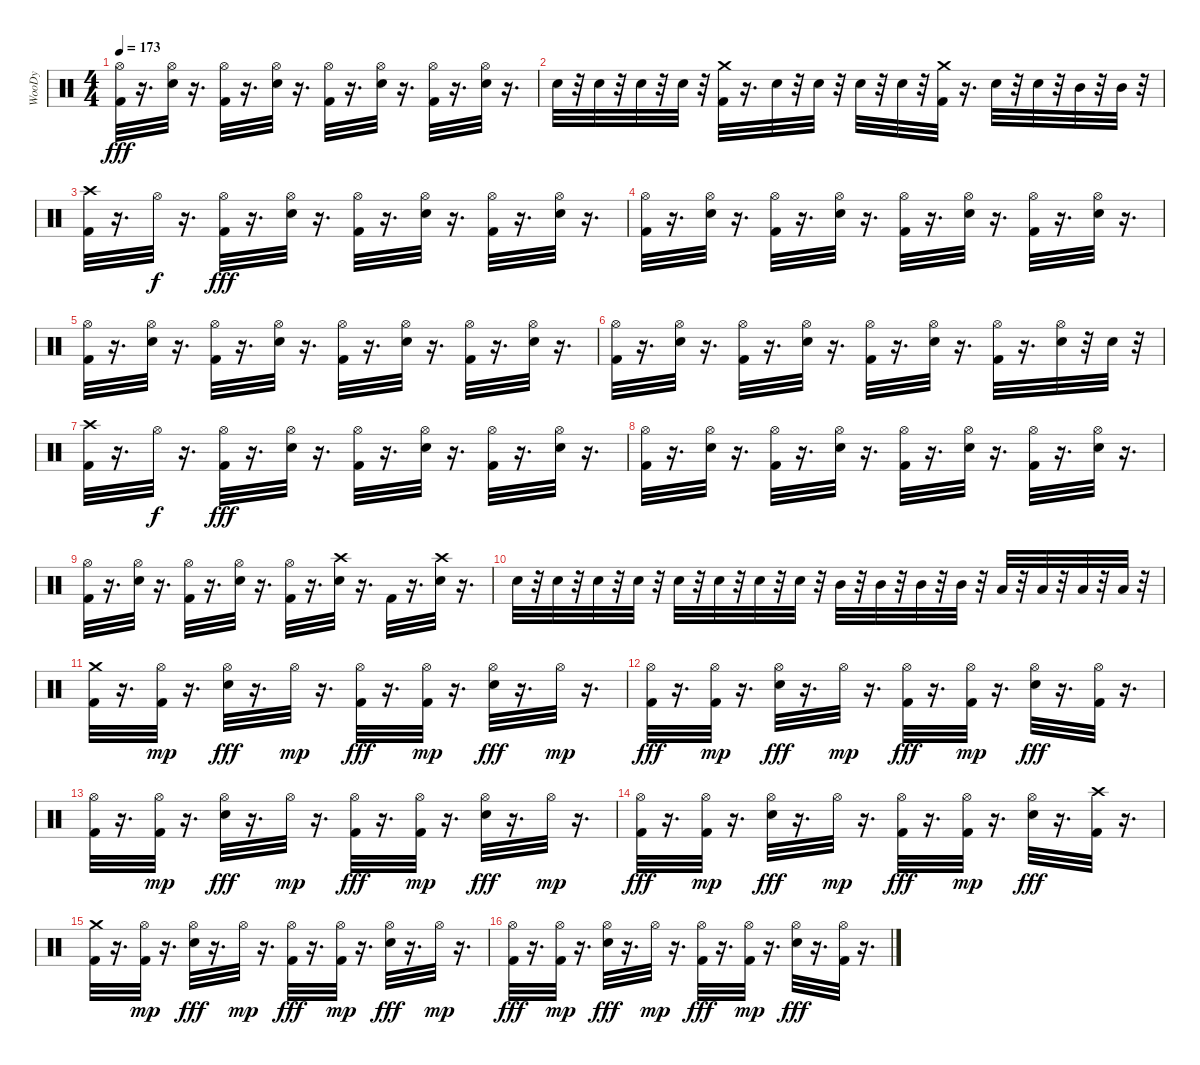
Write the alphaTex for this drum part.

\track ("WooDy" "WooDy") {instrument percussion}
\staff {score}
\articulation defaults
\ts (4 4)
\tempo 173
\clef neutral
\ks c
("Kick (hit) 2" "Hi-Hat (open)").32{dy fff} r.16{d} ("Electric Snare (hit)" "Hi-Hat (open)").32 r.16{d} ("Kick (hit) 2" "Hi-Hat (open)").32 r.16{d} ("Electric Snare (hit)" "Hi-Hat (open)").32 r.16{d} ("Kick (hit) 2" "Hi-Hat (open)").32 r.16{d} ("Electric Snare (hit)" "Hi-Hat (open)").32 r.16{d} ("Kick (hit) 2" "Hi-Hat (open)").32 r.16{d} ("Electric Snare (hit)" "Hi-Hat (open)").32 r.16{d} |
"Electric Snare (hit)".32 r.32 "Electric Snare (hit)".32 r.32 "Electric Snare (hit)".32 r.32 "Electric Snare (hit)".32 r.32 ("Kick (hit) 2" "Crash medium (hit)").32 r.16{d} "Electric Snare (hit)".32 r.32 "Electric Snare (hit)".32 r.32 "Electric Snare (hit)".32 r.32 "Electric Snare (hit)".32 r.32 ("Kick (hit) 2" "Crash medium (hit)").32 r.16{d} "Electric Snare (hit)".32 r.32 "Electric Snare (hit)".32 r.32 "Mid Tom (hit)".32 r.32 "Mid Tom (hit)".32 r.32 |
("Kick (hit) 2" "Crash high (hit)").32 r.16{d} "Hi-Hat (open)".32{dy f} r.16{d} ("Kick (hit) 2" "Hi-Hat (open)").32{dy fff} r.16{d} ("Electric Snare (hit)" "Hi-Hat (open)").32 r.16{d} ("Kick (hit) 2" "Hi-Hat (open)").32 r.16{d} ("Electric Snare (hit)" "Hi-Hat (open)").32 r.16{d} ("Kick (hit) 2" "Hi-Hat (open)").32 r.16{d} ("Electric Snare (hit)" "Hi-Hat (open)").32 r.16{d} |
("Kick (hit) 2" "Hi-Hat (open)").32 r.16{d} ("Electric Snare (hit)" "Hi-Hat (open)").32 r.16{d} ("Kick (hit) 2" "Hi-Hat (open)").32 r.16{d} ("Electric Snare (hit)" "Hi-Hat (open)").32 r.16{d} ("Kick (hit) 2" "Hi-Hat (open)").32 r.16{d} ("Electric Snare (hit)" "Hi-Hat (open)").32 r.16{d} ("Kick (hit) 2" "Hi-Hat (open)").32 r.16{d} ("Electric Snare (hit)" "Hi-Hat (open)").32 r.16{d} |
("Kick (hit) 2" "Hi-Hat (open)").32 r.16{d} ("Electric Snare (hit)" "Hi-Hat (open)").32 r.16{d} ("Kick (hit) 2" "Hi-Hat (open)").32 r.16{d} ("Electric Snare (hit)" "Hi-Hat (open)").32 r.16{d} ("Kick (hit) 2" "Hi-Hat (open)").32 r.16{d} ("Electric Snare (hit)" "Hi-Hat (open)").32 r.16{d} ("Kick (hit) 2" "Hi-Hat (open)").32 r.16{d} ("Electric Snare (hit)" "Hi-Hat (open)").32 r.16{d} |
("Kick (hit) 2" "Hi-Hat (open)").32 r.16{d} ("Electric Snare (hit)" "Hi-Hat (open)").32 r.16{d} ("Kick (hit) 2" "Hi-Hat (open)").32 r.16{d} ("Electric Snare (hit)" "Hi-Hat (open)").32 r.16{d} ("Kick (hit) 2" "Hi-Hat (open)").32 r.16{d} ("Electric Snare (hit)" "Hi-Hat (open)").32 r.16{d} ("Kick (hit) 2" "Hi-Hat (open)").32 r.16{d} ("Electric Snare (hit)" "Hi-Hat (open)").32 r.32 "Electric Snare (hit)".32 r.32 |
("Kick (hit) 2" "Crash high (hit)").32 r.16{d} "Hi-Hat (open)".32{dy f} r.16{d} ("Kick (hit) 2" "Hi-Hat (open)").32{dy fff} r.16{d} ("Electric Snare (hit)" "Hi-Hat (open)").32 r.16{d} ("Kick (hit) 2" "Hi-Hat (open)").32 r.16{d} ("Electric Snare (hit)" "Hi-Hat (open)").32 r.16{d} ("Kick (hit) 2" "Hi-Hat (open)").32 r.16{d} ("Electric Snare (hit)" "Hi-Hat (open)").32 r.16{d} |
("Kick (hit) 2" "Hi-Hat (open)").32 r.16{d} ("Electric Snare (hit)" "Hi-Hat (open)").32 r.16{d} ("Kick (hit) 2" "Hi-Hat (open)").32 r.16{d} ("Electric Snare (hit)" "Hi-Hat (open)").32 r.16{d} ("Kick (hit) 2" "Hi-Hat (open)").32 r.16{d} ("Electric Snare (hit)" "Hi-Hat (open)").32 r.16{d} ("Kick (hit) 2" "Hi-Hat (open)").32 r.16{d} ("Electric Snare (hit)" "Hi-Hat (open)").32 r.16{d} |
("Kick (hit) 2" "Hi-Hat (open)").32 r.16{d} ("Electric Snare (hit)" "Hi-Hat (open)").32 r.16{d} ("Kick (hit) 2" "Hi-Hat (open)").32 r.16{d} ("Electric Snare (hit)" "Hi-Hat (open)").32 r.16{d} ("Kick (hit) 2" "Hi-Hat (open)").32 r.16{d} ("Electric Snare (hit)" "Crash high (hit)").32 r.16{d} "Kick (hit) 2".32 r.16{d} ("Electric Snare (hit)" "Crash high (hit)").32 r.16{d} |
"Electric Snare (hit)".32 r.32 "Electric Snare (hit)".32 r.32 "Electric Snare (hit)".32 r.32 "Electric Snare (hit)".32 r.32 "Electric Snare (hit)".32 r.32 "Electric Snare (hit)".32 r.32 "Electric Snare (hit)".32 r.32 "Electric Snare (hit)".32 r.32 "Mid Tom (hit)".32 r.32 "Mid Tom (hit)".32 r.32 "Mid Tom (hit)".32 r.32 "Mid Tom (hit)".32 r.32 "Low Tom (hit)".32 r.32 "Low Tom (hit)".32 r.32 "Low Tom (hit)".32 r.32 "Low Tom (hit)".32 r.32 |
("Kick (hit) 2" "Crash medium (hit)").32 r.16{d} ("Kick (hit) 2" "Hi-Hat (open)").32{dy mp} r.16{d} ("Electric Snare (hit)" "Hi-Hat (open)").32{dy fff} r.16{d} "Hi-Hat (open)".32{dy mp} r.16{d} ("Kick (hit) 2" "Hi-Hat (open)").32{dy fff} r.16{d} ("Kick (hit) 2" "Hi-Hat (open)").32{dy mp} r.16{d} ("Electric Snare (hit)" "Hi-Hat (open)").32{dy fff} r.16{d} "Hi-Hat (open)".32{dy mp} r.16{d} |
("Kick (hit) 2" "Hi-Hat (open)").32{dy fff} r.16{d} ("Kick (hit) 2" "Hi-Hat (open)").32{dy mp} r.16{d} ("Electric Snare (hit)" "Hi-Hat (open)").32{dy fff} r.16{d} "Hi-Hat (open)".32{dy mp} r.16{d} ("Kick (hit) 2" "Hi-Hat (open)").32{dy fff} r.16{d} ("Kick (hit) 2" "Hi-Hat (open)").32{dy mp} r.16{d} ("Electric Snare (hit)" "Hi-Hat (open)").32{dy fff} r.16{d} ("Kick (hit) 2" "Hi-Hat (open)").32 r.16{d} |
("Kick (hit) 2" "Hi-Hat (open)").32 r.16{d} ("Kick (hit) 2" "Hi-Hat (open)").32{dy mp} r.16{d} ("Electric Snare (hit)" "Hi-Hat (open)").32{dy fff} r.16{d} "Hi-Hat (open)".32{dy mp} r.16{d} ("Kick (hit) 2" "Hi-Hat (open)").32{dy fff} r.16{d} ("Kick (hit) 2" "Hi-Hat (open)").32{dy mp} r.16{d} ("Electric Snare (hit)" "Hi-Hat (open)").32{dy fff} r.16{d} "Hi-Hat (open)".32{dy mp} r.16{d} |
("Kick (hit) 2" "Hi-Hat (open)").32{dy fff} r.16{d} ("Kick (hit) 2" "Hi-Hat (open)").32{dy mp} r.16{d} ("Electric Snare (hit)" "Hi-Hat (open)").32{dy fff} r.16{d} "Hi-Hat (open)".32{dy mp} r.16{d} ("Kick (hit) 2" "Hi-Hat (open)").32{dy fff} r.16{d} ("Kick (hit) 2" "Hi-Hat (open)").32{dy mp} r.16{d} ("Electric Snare (hit)" "Hi-Hat (open)").32{dy fff} r.16{d} ("Kick (hit) 2" "Crash high (hit)").32 r.16{d} |
("Kick (hit) 2" "Crash medium (hit)").32 r.16{d} ("Kick (hit) 2" "Hi-Hat (open)").32{dy mp} r.16{d} ("Electric Snare (hit)" "Hi-Hat (open)").32{dy fff} r.16{d} "Hi-Hat (open)".32{dy mp} r.16{d} ("Kick (hit) 2" "Hi-Hat (open)").32{dy fff} r.16{d} ("Kick (hit) 2" "Hi-Hat (open)").32{dy mp} r.16{d} ("Electric Snare (hit)" "Hi-Hat (open)").32{dy fff} r.16{d} "Hi-Hat (open)".32{dy mp} r.16{d} |
("Kick (hit) 2" "Hi-Hat (open)").32{dy fff} r.16{d} ("Kick (hit) 2" "Hi-Hat (open)").32{dy mp} r.16{d} ("Electric Snare (hit)" "Hi-Hat (open)").32{dy fff} r.16{d} "Hi-Hat (open)".32{dy mp} r.16{d} ("Kick (hit) 2" "Hi-Hat (open)").32{dy fff} r.16{d} ("Kick (hit) 2" "Hi-Hat (open)").32{dy mp} r.16{d} ("Electric Snare (hit)" "Hi-Hat (open)").32{dy fff} r.16{d} ("Kick (hit) 2" "Hi-Hat (open)").32 r.16{d}
